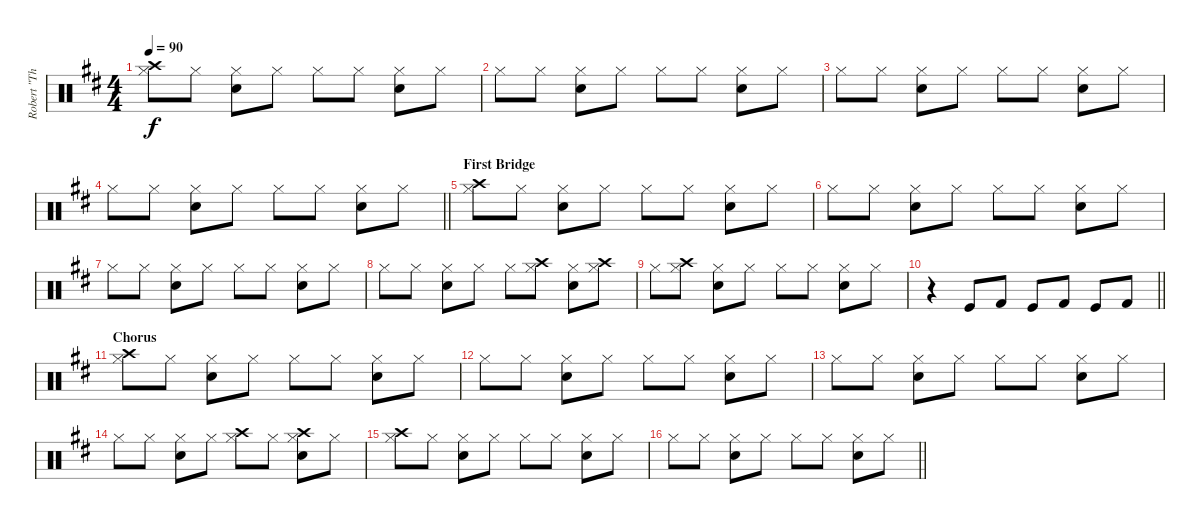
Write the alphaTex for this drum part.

\track ("Robert \"The Visual Timekeeper\" Sweet [Dr" "Robert \"Th") {instrument percussion}
\staff {score}
\articulation defaults
\ts (4 4)
\tempo 90
\clef neutral
\ks d
("Hi-Hat (closed)" "Crash high (hit)").8{dy f} "Hi-Hat (closed)".8 ("Hi-Hat (closed)" "Snare (hit) 2").8 "Hi-Hat (closed)".8 "Hi-Hat (closed)".8 "Hi-Hat (closed)".8 ("Hi-Hat (closed)" "Snare (hit) 2").8 "Hi-Hat (closed)".8 |
"Hi-Hat (closed)".8 "Hi-Hat (closed)".8 ("Hi-Hat (closed)" "Snare (hit) 2").8 "Hi-Hat (closed)".8 "Hi-Hat (closed)".8 "Hi-Hat (closed)".8 ("Hi-Hat (closed)" "Snare (hit) 2").8 "Hi-Hat (closed)".8 |
"Hi-Hat (closed)".8 "Hi-Hat (closed)".8 ("Hi-Hat (closed)" "Snare (hit) 2").8 "Hi-Hat (closed)".8 "Hi-Hat (closed)".8 "Hi-Hat (closed)".8 ("Hi-Hat (closed)" "Snare (hit) 2").8 "Hi-Hat (closed)".8 |
\barLineRight lightlight "Hi-Hat (closed)".8 "Hi-Hat (closed)".8
("Hi-Hat (closed)" "Snare (hit) 2").8 "Hi-Hat (closed)".8 "Hi-Hat (closed)".8 "Hi-Hat (closed)".8 ("Hi-Hat (closed)" "Snare (hit) 2").8 "Hi-Hat (closed)".8 |
\section ("" "First Bridge")
("Crash high (hit)" "Hi-Hat (closed)").8 "Hi-Hat (closed)".8 ("Hi-Hat (closed)" "Snare (hit) 2").8 "Hi-Hat (closed)".8 "Hi-Hat (closed)".8 "Hi-Hat (closed)".8 ("Hi-Hat (closed)" "Snare (hit) 2").8 "Hi-Hat (closed)".8 |
"Hi-Hat (closed)".8 "Hi-Hat (closed)".8 ("Hi-Hat (closed)" "Snare (hit) 2").8 "Hi-Hat (closed)".8 "Hi-Hat (closed)".8 "Hi-Hat (closed)".8 ("Hi-Hat (closed)" "Snare (hit) 2").8 "Hi-Hat (closed)".8 |
"Hi-Hat (closed)".8 "Hi-Hat (closed)".8 ("Hi-Hat (closed)" "Snare (hit) 2").8 "Hi-Hat (closed)".8 "Hi-Hat (closed)".8 "Hi-Hat (closed)".8 ("Hi-Hat (closed)" "Snare (hit) 2").8 "Hi-Hat (closed)".8 |
"Hi-Hat (closed)".8 "Hi-Hat (closed)".8 ("Hi-Hat (closed)" "Snare (hit) 2").8 "Hi-Hat (closed)".8 "Hi-Hat (closed)".8 ("Hi-Hat (closed)" "Crash high (hit)").8 ("Hi-Hat (closed)" "Snare (hit) 2").8 ("Hi-Hat (closed)" "Crash high (hit)").8 |
"Hi-Hat (closed)".8 ("Hi-Hat (closed)" "Crash high (hit)").8 ("Hi-Hat (closed)" "Snare (hit) 2").8 "Hi-Hat (closed)".8 "Hi-Hat (closed)".8 "Hi-Hat (closed)".8 ("Hi-Hat (closed)" "Snare (hit) 2").8 "Hi-Hat (closed)".8 |
\barLineRight lightlight
r.4{volume 0} "Kick (hit)".8{volume 16} "Kick (hit) 2".8 "Kick (hit)".8 "Kick (hit) 2".8 "Kick (hit)".8 "Kick (hit) 2".8 |
\section ("" "Chorus")
("Crash high (hit)" "Hi-Hat (closed)").8 "Hi-Hat (closed)".8 ("Hi-Hat (closed)" "Snare (hit) 2").8 "Hi-Hat (closed)".8 "Hi-Hat (closed)".8 "Hi-Hat (closed)".8 ("Hi-Hat (closed)" "Snare (hit) 2").8 "Hi-Hat (closed)".8 |
"Hi-Hat (closed)".8 "Hi-Hat (closed)".8 ("Hi-Hat (closed)" "Snare (hit) 2").8 "Hi-Hat (closed)".8 "Hi-Hat (closed)".8 "Hi-Hat (closed)".8 ("Hi-Hat (closed)" "Snare (hit) 2").8 "Hi-Hat (closed)".8 |
"Hi-Hat (closed)".8 "Hi-Hat (closed)".8 ("Hi-Hat (closed)" "Snare (hit) 2").8 "Hi-Hat (closed)".8 "Hi-Hat (closed)".8 "Hi-Hat (closed)".8 ("Hi-Hat (closed)" "Snare (hit) 2").8 "Hi-Hat (closed)".8 |
"Hi-Hat (closed)".8 "Hi-Hat (closed)".8 ("Hi-Hat (closed)" "Snare (hit) 2").8 "Hi-Hat (closed)".8 ("Hi-Hat (closed)" "Crash high (hit)").8 "Hi-Hat (closed)".8 ("Hi-Hat (closed)" "Snare (hit) 2" "Crash high (hit)").8 "Hi-Hat (closed)".8 |
("Hi-Hat (closed)" "Crash high (hit)").8 "Hi-Hat (closed)".8 ("Hi-Hat (closed)" "Snare (hit) 2").8 "Hi-Hat (closed)".8 "Hi-Hat (closed)".8 "Hi-Hat (closed)".8 ("Hi-Hat (closed)" "Snare (hit) 2").8 "Hi-Hat (closed)".8 |
\barLineRight lightlight "Hi-Hat (closed)".8 "Hi-Hat (closed)".8
("Hi-Hat (closed)" "Snare (hit) 2").8 "Hi-Hat (closed)".8 "Hi-Hat (closed)".8 "Hi-Hat (closed)".8 ("Hi-Hat (closed)" "Snare (hit) 2").8 "Hi-Hat (closed)".8
